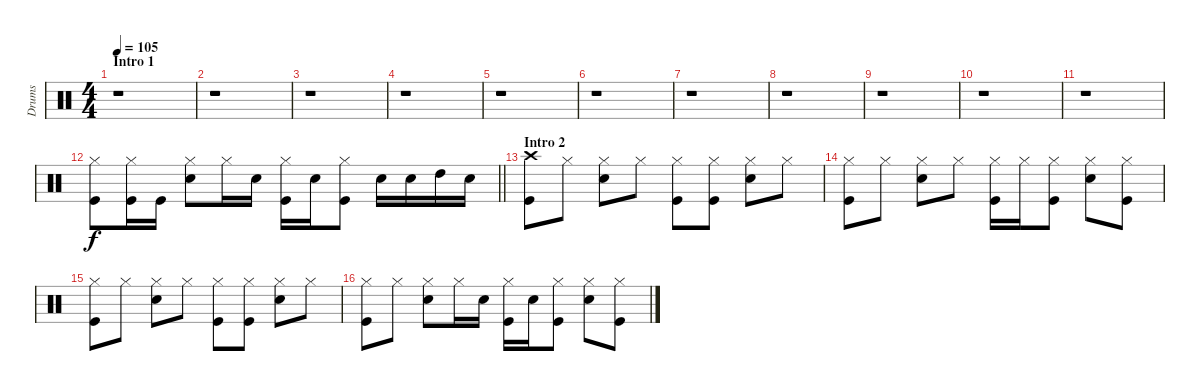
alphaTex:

\track ("Drums" "Drums") {instrument percussion}
\staff {score}
\articulation defaults
\ts (4 4)
\section ("" "Intro 1")
\tempo 105
\clef neutral
\ks c
r.1{dy f} |
r.1 |
r.1 |
r.1 |
r.1 |
r.1 |
r.1 |
r.1 |
r.1 |
r.1 |
r.1 |
\barLineRight lightlight
("Hi-Hat (closed)" "Kick (hit)").8 ("Hi-Hat (closed)" "Kick (hit)").16 "Kick (hit)".16 ("Hi-Hat (closed)" "Electric Snare (hit)").8 "Hi-Hat (closed)".16 "Electric Snare (hit)".16 ("Hi-Hat (closed)" "Kick (hit)").16 "Electric Snare (hit)".16 ("Hi-Hat (closed)" "Kick (hit)").8 "Electric Snare (hit)".16 "Electric Snare (hit)".16 "High Tom (hit)".16 "Electric Snare (hit)".16 |
\section ("" "Intro 2")
("Crash high (hit)" "Kick (hit)").8 "Hi-Hat (closed)".8 ("Hi-Hat (closed)" "Electric Snare (hit)").8 "Hi-Hat (closed)".8 ("Hi-Hat (closed)" "Kick (hit)").8 ("Hi-Hat (closed)" "Kick (hit)").8 ("Hi-Hat (closed)" "Electric Snare (hit)").8 "Hi-Hat (closed)".8 |
("Hi-Hat (closed)" "Kick (hit)").8 "Hi-Hat (closed)".8 ("Hi-Hat (closed)" "Electric Snare (hit)").8 "Hi-Hat (closed)".8 ("Hi-Hat (closed)" "Kick (hit)").16 "Hi-Hat (closed)".16 ("Hi-Hat (closed)" "Kick (hit)").8 ("Hi-Hat (closed)" "Electric Snare (hit)").8 ("Hi-Hat (closed)" "Kick (hit)").8 |
("Hi-Hat (closed)" "Kick (hit)").8 "Hi-Hat (closed)".8 ("Hi-Hat (closed)" "Electric Snare (hit)").8 "Hi-Hat (closed)".8 ("Hi-Hat (closed)" "Kick (hit)").8 ("Hi-Hat (closed)" "Kick (hit)").8 ("Hi-Hat (closed)" "Electric Snare (hit)").8 "Hi-Hat (closed)".8 |
("Hi-Hat (closed)" "Kick (hit)").8 "Hi-Hat (closed)".8 ("Hi-Hat (closed)" "Electric Snare (hit)").8 "Hi-Hat (closed)".16 "Electric Snare (hit)".16 ("Hi-Hat (closed)" "Kick (hit)").16 "Electric Snare (hit)".16 ("Hi-Hat (closed)" "Kick (hit)").8 ("Hi-Hat (closed)" "Electric Snare (hit)").8 ("Hi-Hat (closed)" "Kick (hit)").8
